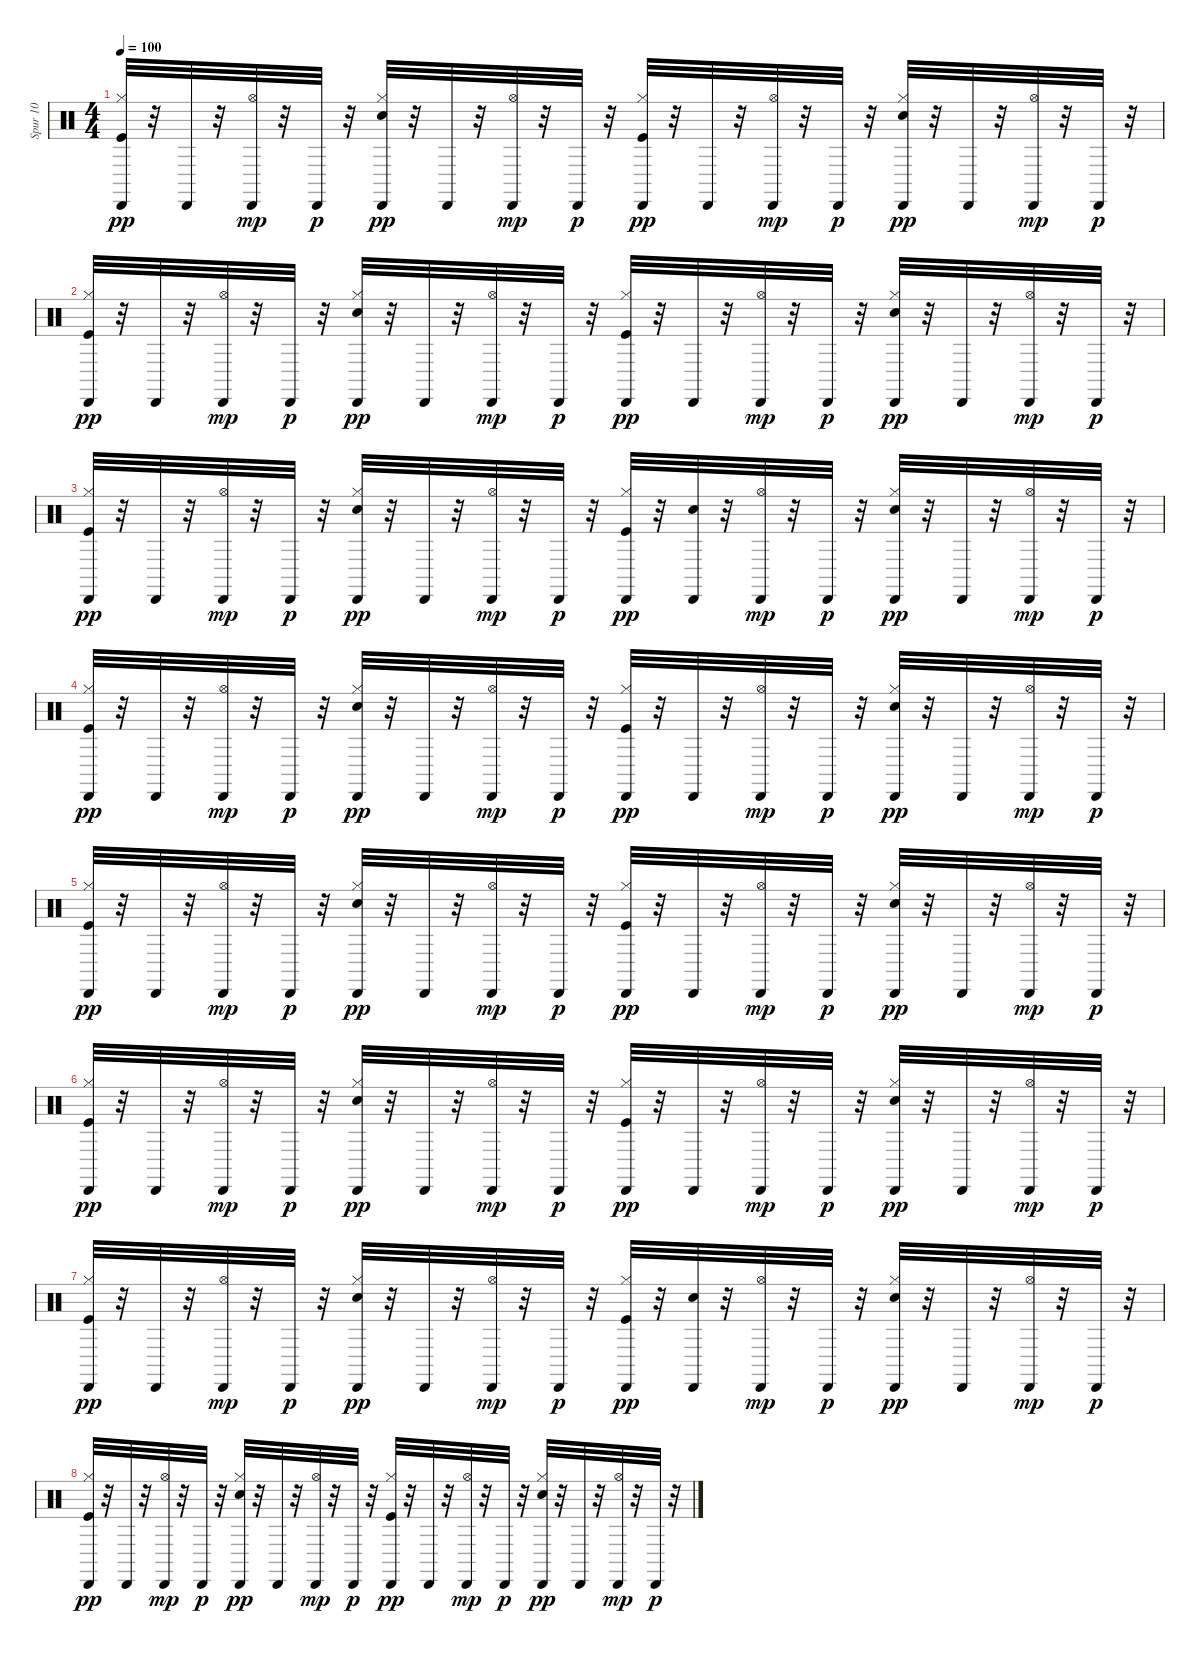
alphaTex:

\track ("Spur 10" "Spur 10") {instrument percussion}
\staff {score}
\articulation defaults
\ts (4 4)
\tempo 100
\clef neutral
\ks c
("Kick (hit)" "Hi-Hat (closed)" "Cabasa (hit)").32{dy pp} r.32 "Cabasa (hit)".32 r.32 ("Hi-Hat (open)" "Cabasa (hit)").32{dy mp} r.32 "Cabasa (hit)".32{dy p} r.32 ("Electric Snare (hit)" "Hi-Hat (closed)" "Cabasa (hit)").32{dy pp} r.32 "Cabasa (hit)".32 r.32 ("Hi-Hat (open)" "Cabasa (hit)").32{dy mp} r.32 "Cabasa (hit)".32{dy p} r.32 ("Kick (hit)" "Hi-Hat (closed)" "Cabasa (hit)").32{dy pp} r.32 "Cabasa (hit)".32 r.32 ("Hi-Hat (open)" "Cabasa (hit)").32{dy mp} r.32 "Cabasa (hit)".32{dy p} r.32 ("Electric Snare (hit)" "Hi-Hat (closed)" "Cabasa (hit)").32{dy pp} r.32 "Cabasa (hit)".32 r.32 ("Hi-Hat (open)" "Cabasa (hit)").32{dy mp} r.32 "Cabasa (hit)".32{dy p} r.32 |
("Kick (hit)" "Hi-Hat (closed)" "Cabasa (hit)").32{dy pp} r.32 "Cabasa (hit)".32 r.32 ("Hi-Hat (open)" "Cabasa (hit)").32{dy mp} r.32 "Cabasa (hit)".32{dy p} r.32 ("Electric Snare (hit)" "Hi-Hat (closed)" "Cabasa (hit)").32{dy pp} r.32 "Cabasa (hit)".32 r.32 ("Hi-Hat (open)" "Cabasa (hit)").32{dy mp} r.32 "Cabasa (hit)".32{dy p} r.32 ("Kick (hit)" "Hi-Hat (closed)" "Cabasa (hit)").32{dy pp} r.32 "Cabasa (hit)".32 r.32 ("Hi-Hat (open)" "Cabasa (hit)").32{dy mp} r.32 "Cabasa (hit)".32{dy p} r.32 ("Electric Snare (hit)" "Hi-Hat (closed)" "Cabasa (hit)").32{dy pp} r.32 "Cabasa (hit)".32 r.32 ("Hi-Hat (open)" "Cabasa (hit)").32{dy mp} r.32 "Cabasa (hit)".32{dy p} r.32 |
("Kick (hit)" "Hi-Hat (closed)" "Cabasa (hit)").32{dy pp} r.32 "Cabasa (hit)".32 r.32 ("Hi-Hat (open)" "Cabasa (hit)").32{dy mp} r.32 "Cabasa (hit)".32{dy p} r.32 ("Electric Snare (hit)" "Hi-Hat (closed)" "Cabasa (hit)").32{dy pp} r.32 "Cabasa (hit)".32 r.32 ("Hi-Hat (open)" "Cabasa (hit)").32{dy mp} r.32 "Cabasa (hit)".32{dy p} r.32 ("Kick (hit)" "Hi-Hat (closed)" "Cabasa (hit)").32{dy pp} r.32 ("Electric Snare (hit)" "Cabasa (hit)").32 r.32 ("Hi-Hat (open)" "Cabasa (hit)").32{dy mp} r.32 "Cabasa (hit)".32{dy p} r.32 ("Electric Snare (hit)" "Hi-Hat (closed)" "Cabasa (hit)").32{dy pp} r.32 "Cabasa (hit)".32 r.32 ("Hi-Hat (open)" "Cabasa (hit)").32{dy mp} r.32 "Cabasa (hit)".32{dy p} r.32 |
("Kick (hit)" "Hi-Hat (closed)" "Cabasa (hit)").32{dy pp} r.32 "Cabasa (hit)".32 r.32 ("Hi-Hat (open)" "Cabasa (hit)").32{dy mp} r.32 "Cabasa (hit)".32{dy p} r.32 ("Electric Snare (hit)" "Hi-Hat (closed)" "Cabasa (hit)").32{dy pp} r.32 "Cabasa (hit)".32 r.32 ("Hi-Hat (open)" "Cabasa (hit)").32{dy mp} r.32 "Cabasa (hit)".32{dy p} r.32 ("Kick (hit)" "Hi-Hat (closed)" "Cabasa (hit)").32{dy pp} r.32 "Cabasa (hit)".32 r.32 ("Hi-Hat (open)" "Cabasa (hit)").32{dy mp} r.32 "Cabasa (hit)".32{dy p} r.32 ("Electric Snare (hit)" "Hi-Hat (closed)" "Cabasa (hit)").32{dy pp} r.32 "Cabasa (hit)".32 r.32 ("Hi-Hat (open)" "Cabasa (hit)").32{dy mp} r.32 "Cabasa (hit)".32{dy p} r.32 |
("Kick (hit)" "Hi-Hat (closed)" "Cabasa (hit)").32{dy pp} r.32 "Cabasa (hit)".32 r.32 ("Hi-Hat (open)" "Cabasa (hit)").32{dy mp} r.32 "Cabasa (hit)".32{dy p} r.32 ("Electric Snare (hit)" "Hi-Hat (closed)" "Cabasa (hit)").32{dy pp} r.32 "Cabasa (hit)".32 r.32 ("Hi-Hat (open)" "Cabasa (hit)").32{dy mp} r.32 "Cabasa (hit)".32{dy p} r.32 ("Kick (hit)" "Hi-Hat (closed)" "Cabasa (hit)").32{dy pp} r.32 "Cabasa (hit)".32 r.32 ("Hi-Hat (open)" "Cabasa (hit)").32{dy mp} r.32 "Cabasa (hit)".32{dy p} r.32 ("Electric Snare (hit)" "Hi-Hat (closed)" "Cabasa (hit)").32{dy pp} r.32 "Cabasa (hit)".32 r.32 ("Hi-Hat (open)" "Cabasa (hit)").32{dy mp} r.32 "Cabasa (hit)".32{dy p} r.32 |
("Kick (hit)" "Hi-Hat (closed)" "Cabasa (hit)").32{dy pp} r.32 "Cabasa (hit)".32 r.32 ("Hi-Hat (open)" "Cabasa (hit)").32{dy mp} r.32 "Cabasa (hit)".32{dy p} r.32 ("Electric Snare (hit)" "Hi-Hat (closed)" "Cabasa (hit)").32{dy pp} r.32 "Cabasa (hit)".32 r.32 ("Hi-Hat (open)" "Cabasa (hit)").32{dy mp} r.32 "Cabasa (hit)".32{dy p} r.32 ("Kick (hit)" "Hi-Hat (closed)" "Cabasa (hit)").32{dy pp} r.32 "Cabasa (hit)".32 r.32 ("Hi-Hat (open)" "Cabasa (hit)").32{dy mp} r.32 "Cabasa (hit)".32{dy p} r.32 ("Electric Snare (hit)" "Hi-Hat (closed)" "Cabasa (hit)").32{dy pp} r.32 "Cabasa (hit)".32 r.32 ("Hi-Hat (open)" "Cabasa (hit)").32{dy mp} r.32 "Cabasa (hit)".32{dy p} r.32 |
("Kick (hit)" "Hi-Hat (closed)" "Cabasa (hit)").32{dy pp} r.32 "Cabasa (hit)".32 r.32 ("Hi-Hat (open)" "Cabasa (hit)").32{dy mp} r.32 "Cabasa (hit)".32{dy p} r.32 ("Electric Snare (hit)" "Hi-Hat (closed)" "Cabasa (hit)").32{dy pp} r.32 "Cabasa (hit)".32 r.32 ("Hi-Hat (open)" "Cabasa (hit)").32{dy mp} r.32 "Cabasa (hit)".32{dy p} r.32 ("Kick (hit)" "Hi-Hat (closed)" "Cabasa (hit)").32{dy pp} r.32 ("Electric Snare (hit)" "Cabasa (hit)").32 r.32 ("Hi-Hat (open)" "Cabasa (hit)").32{dy mp} r.32 "Cabasa (hit)".32{dy p} r.32 ("Electric Snare (hit)" "Hi-Hat (closed)" "Cabasa (hit)").32{dy pp} r.32 "Cabasa (hit)".32 r.32 ("Hi-Hat (open)" "Cabasa (hit)").32{dy mp} r.32 "Cabasa (hit)".32{dy p} r.32 |
("Kick (hit)" "Hi-Hat (closed)" "Cabasa (hit)").32{dy pp} r.32 "Cabasa (hit)".32 r.32 ("Hi-Hat (open)" "Cabasa (hit)").32{dy mp} r.32 "Cabasa (hit)".32{dy p} r.32 ("Electric Snare (hit)" "Hi-Hat (closed)" "Cabasa (hit)").32{dy pp} r.32 "Cabasa (hit)".32 r.32 ("Hi-Hat (open)" "Cabasa (hit)").32{dy mp} r.32 "Cabasa (hit)".32{dy p} r.32 ("Kick (hit)" "Hi-Hat (closed)" "Cabasa (hit)").32{dy pp} r.32 "Cabasa (hit)".32 r.32 ("Hi-Hat (open)" "Cabasa (hit)").32{dy mp} r.32 "Cabasa (hit)".32{dy p} r.32 ("Electric Snare (hit)" "Hi-Hat (closed)" "Cabasa (hit)").32{dy pp} r.32 "Cabasa (hit)".32 r.32 ("Hi-Hat (open)" "Cabasa (hit)").32{dy mp} r.32 "Cabasa (hit)".32{dy p} r.32
